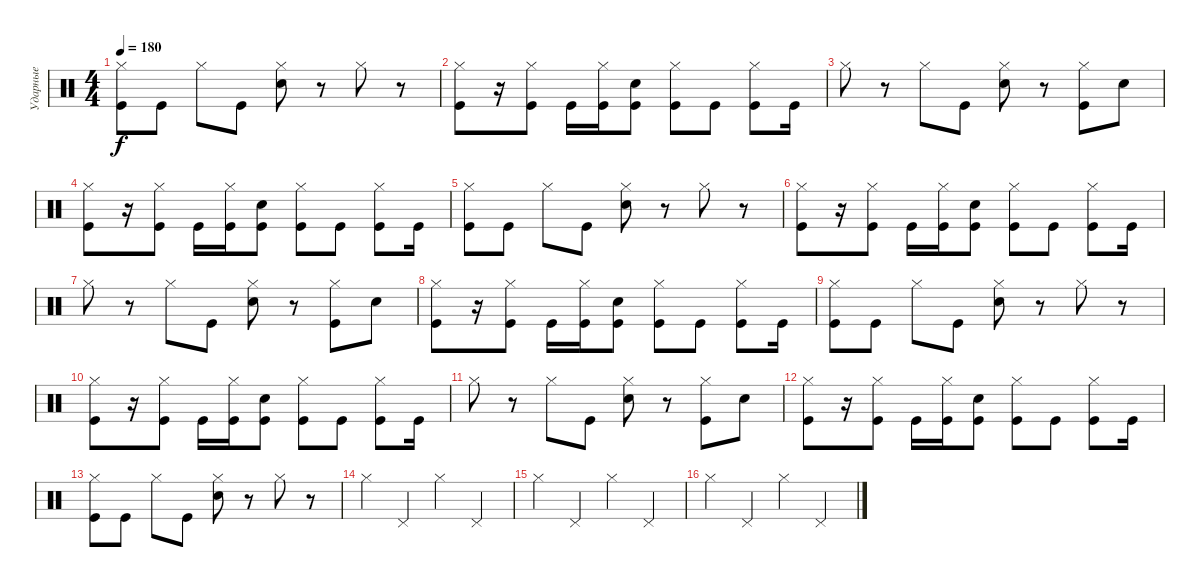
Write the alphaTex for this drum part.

\track ("Ударные" "Ударные") {instrument percussion}
\staff {score}
\articulation defaults
\ts (4 4)
\tempo 180
\clef neutral
\ks c
("Hi-Hat (closed)" "Kick (hit)").8{dy f} "Kick (hit)".8 "Hi-Hat (closed)".8 "Kick (hit)".8 ("Hi-Hat (closed)" "Electric Snare (hit)").8 r.8 "Hi-Hat (closed)".8 r.8 |
("Hi-Hat (closed)" "Kick (hit)").8 r.16 ("Hi-Hat (closed)" "Kick (hit)").8 "Kick (hit)".16 ("Hi-Hat (closed)" "Kick (hit)").16 ("Kick (hit)" "Electric Snare (hit)").8 ("Hi-Hat (closed)" "Kick (hit)").8 "Kick (hit)".8 ("Hi-Hat (closed)" "Kick (hit)").8 "Kick (hit)".16 |
"Hi-Hat (closed)".8 r.8 "Hi-Hat (closed)".8 "Kick (hit)".8 ("Hi-Hat (closed)" "Electric Snare (hit)").8 r.8 ("Hi-Hat (closed)" "Kick (hit)").8 "Electric Snare (hit)".8 |
("Hi-Hat (closed)" "Kick (hit)").8 r.16 ("Hi-Hat (closed)" "Kick (hit)").8 "Kick (hit)".16 ("Hi-Hat (closed)" "Kick (hit)").16 ("Kick (hit)" "Electric Snare (hit)").8 ("Hi-Hat (closed)" "Kick (hit)").8 "Kick (hit)".8 ("Hi-Hat (closed)" "Kick (hit)").8 "Kick (hit)".16 |
("Hi-Hat (closed)" "Kick (hit)").8 "Kick (hit)".8 "Hi-Hat (closed)".8 "Kick (hit)".8 ("Hi-Hat (closed)" "Electric Snare (hit)").8 r.8 "Hi-Hat (closed)".8 r.8 |
("Hi-Hat (closed)" "Kick (hit)").8 r.16 ("Hi-Hat (closed)" "Kick (hit)").8 "Kick (hit)".16 ("Hi-Hat (closed)" "Kick (hit)").16 ("Kick (hit)" "Electric Snare (hit)").8 ("Hi-Hat (closed)" "Kick (hit)").8 "Kick (hit)".8 ("Hi-Hat (closed)" "Kick (hit)").8 "Kick (hit)".16 |
"Hi-Hat (closed)".8 r.8 "Hi-Hat (closed)".8 "Kick (hit)".8 ("Hi-Hat (closed)" "Electric Snare (hit)").8 r.8 ("Hi-Hat (closed)" "Kick (hit)").8 "Electric Snare (hit)".8 |
("Hi-Hat (closed)" "Kick (hit)").8 r.16 ("Hi-Hat (closed)" "Kick (hit)").8 "Kick (hit)".16 ("Hi-Hat (closed)" "Kick (hit)").16 ("Kick (hit)" "Electric Snare (hit)").8 ("Hi-Hat (closed)" "Kick (hit)").8 "Kick (hit)".8 ("Hi-Hat (closed)" "Kick (hit)").8 "Kick (hit)".16 |
("Hi-Hat (closed)" "Kick (hit)").8 "Kick (hit)".8 "Hi-Hat (closed)".8 "Kick (hit)".8 ("Hi-Hat (closed)" "Electric Snare (hit)").8 r.8 "Hi-Hat (closed)".8 r.8 |
("Hi-Hat (closed)" "Kick (hit)").8 r.16 ("Hi-Hat (closed)" "Kick (hit)").8 "Kick (hit)".16 ("Hi-Hat (closed)" "Kick (hit)").16 ("Kick (hit)" "Electric Snare (hit)").8 ("Hi-Hat (closed)" "Kick (hit)").8 "Kick (hit)".8 ("Hi-Hat (closed)" "Kick (hit)").8 "Kick (hit)".16 |
"Hi-Hat (closed)".8 r.8 "Hi-Hat (closed)".8 "Kick (hit)".8 ("Hi-Hat (closed)" "Electric Snare (hit)").8 r.8 ("Hi-Hat (closed)" "Kick (hit)").8 "Electric Snare (hit)".8 |
("Hi-Hat (closed)" "Kick (hit)").8 r.16 ("Hi-Hat (closed)" "Kick (hit)").8 "Kick (hit)".16 ("Hi-Hat (closed)" "Kick (hit)").16 ("Kick (hit)" "Electric Snare (hit)").8 ("Hi-Hat (closed)" "Kick (hit)").8 "Kick (hit)".8 ("Hi-Hat (closed)" "Kick (hit)").8 "Kick (hit)".16 |
("Hi-Hat (closed)" "Kick (hit)").8 "Kick (hit)".8 "Hi-Hat (closed)".8 "Kick (hit)".8 ("Hi-Hat (closed)" "Electric Snare (hit)").8 r.8 "Hi-Hat (closed)".8 r.8 |
"Hi-Hat (closed)".4 "Pedal Hi-Hat (hit)".4 "Hi-Hat (closed)".4 "Pedal Hi-Hat (hit)".4 |
"Hi-Hat (closed)".4 "Pedal Hi-Hat (hit)".4 "Hi-Hat (closed)".4 "Pedal Hi-Hat (hit)".4 |
"Hi-Hat (closed)".4 "Pedal Hi-Hat (hit)".4 "Hi-Hat (closed)".4 "Pedal Hi-Hat (hit)".4
